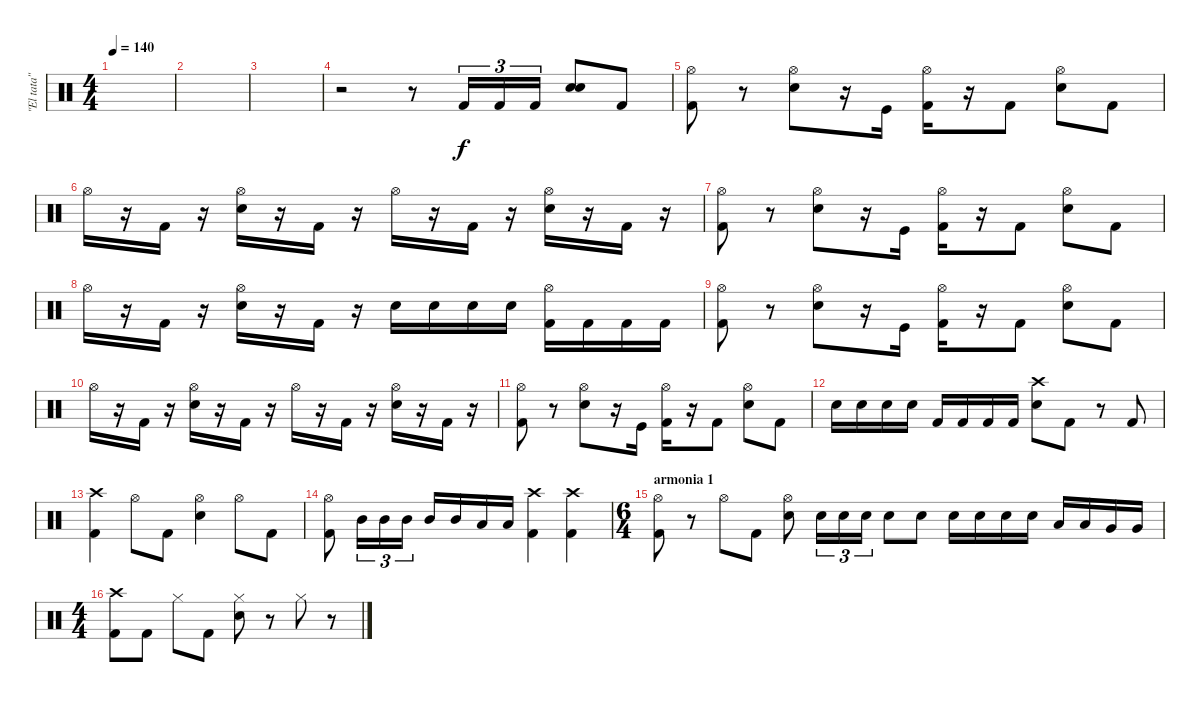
\track ("\"El tata\"" "\"El tata\"") {instrument percussion}
\staff {score}
\articulation defaults
\ts (4 4)
\tempo 140
\clef neutral
\ks c
|
|
|
r.2 r.8 "Kick (hit) 2".16{tu (3 2)} "Kick (hit) 2".16{tu (3 2)} "Kick (hit) 2".16{tu (3 2)} ("Electric Snare (hit)" "Electric Snare (hit)").8 "Kick (hit) 2".8 |
("Hi-Hat (open)" "Kick (hit) 2").8 r.8 ("Hi-Hat (open)" "Electric Snare (hit)").8 r.16 "Kick (hit)".16 ("Hi-Hat (open)" "Kick (hit) 2").16 r.16 "Kick (hit) 2".8 ("Hi-Hat (open)" "Electric Snare (hit)").8 "Kick (hit) 2".8 |
"Hi-Hat (open)".16 r.16 "Kick (hit) 2".16 r.16 ("Hi-Hat (open)" "Electric Snare (hit)").16 r.16 "Kick (hit) 2".16 r.16 "Hi-Hat (open)".16 r.16 "Kick (hit) 2".16 r.16 ("Hi-Hat (open)" "Electric Snare (hit)").16 r.16 "Kick (hit) 2".16 r.16 |
("Hi-Hat (open)" "Kick (hit) 2").8 r.8 ("Hi-Hat (open)" "Electric Snare (hit)").8 r.16 "Kick (hit)".16 ("Hi-Hat (open)" "Kick (hit) 2").16 r.16 "Kick (hit) 2".8 ("Hi-Hat (open)" "Electric Snare (hit)").8 "Kick (hit) 2".8 |
"Hi-Hat (open)".16 r.16 "Kick (hit) 2".16 r.16 ("Hi-Hat (open)" "Electric Snare (hit)").16 r.16 "Kick (hit) 2".16 r.16 "Electric Snare (hit)".16 "Electric Snare (hit)".16 "Electric Snare (hit)".16 "Electric Snare (hit)".16 ("Hi-Hat (open)" "Kick (hit) 2").16 "Kick (hit) 2".16 "Kick (hit) 2".16 "Kick (hit) 2".16 |
("Hi-Hat (open)" "Kick (hit) 2").8 r.8 ("Hi-Hat (open)" "Electric Snare (hit)").8 r.16 "Kick (hit)".16 ("Hi-Hat (open)" "Kick (hit) 2").16 r.16 "Kick (hit) 2".8 ("Hi-Hat (open)" "Electric Snare (hit)").8 "Kick (hit) 2".8 |
"Hi-Hat (open)".16 r.16 "Kick (hit) 2".16 r.16 ("Hi-Hat (open)" "Electric Snare (hit)").16 r.16 "Kick (hit) 2".16 r.16 "Hi-Hat (open)".16 r.16 "Kick (hit) 2".16 r.16 ("Hi-Hat (open)" "Electric Snare (hit)").16 r.16 "Kick (hit) 2".16 r.16 |
("Hi-Hat (open)" "Kick (hit) 2").8 r.8 ("Hi-Hat (open)" "Electric Snare (hit)").8 r.16 "Kick (hit)".16 ("Hi-Hat (open)" "Kick (hit) 2").16 r.16 "Kick (hit) 2".8 ("Hi-Hat (open)" "Electric Snare (hit)").8 "Kick (hit) 2".8 |
"Electric Snare (hit)".16 "Electric Snare (hit)".16 "Electric Snare (hit)".16 "Electric Snare (hit)".16 "Kick (hit) 2".16 "Kick (hit) 2".16 "Kick (hit) 2".16 "Kick (hit) 2".16 ("Crash high (hit)" "Electric Snare (hit)").8 "Kick (hit) 2".8 r.8 "Kick (hit) 2".8 |
("Crash high (hit)" "Kick (hit) 2").4 "Hi-Hat (open)".8 "Kick (hit) 2".8 ("Hi-Hat (open)" "Electric Snare (hit)").4 "Hi-Hat (open)".8 "Kick (hit) 2".8 |
("Hi-Hat (open)" "Kick (hit) 2").8 "Mid Tom (hit)".16{tu (3 2)} "Mid Tom (hit)".16{tu (3 2)} "Mid Tom (hit)".16{tu (3 2)} "Mid Tom (hit)".16 "Mid Tom (hit)".16 "Low Tom (hit)".16 "Low Tom (hit)".16 ("Crash high (hit)" "Kick (hit) 2").4 ("Crash high (hit)" "Kick (hit) 2").4 |
\ts (6 4)
\section ("" "armonia 1")
("Hi-Hat (open)" "Kick (hit) 2").8 r.8 "Hi-Hat (open)".8 "Kick (hit) 2".8 ("Hi-Hat (open)" "Electric Snare (hit)").8 "Electric Snare (hit)".16{tu (3 2)} "Electric Snare (hit)".16{tu (3 2)} "Electric Snare (hit)".16{tu (3 2)} "Electric Snare (hit)".8 "Electric Snare (hit)".8 "Electric Snare (hit)".16 "Electric Snare (hit)".16 "Electric Snare (hit)".16 "Electric Snare (hit)".16 "Low Tom (hit)".16 "Low Tom (hit)".16 "Very Low Tom (hit)".16 "Very Low Tom (hit)".16 |
\ts (4 4)
("Crash high (hit)" "Kick (hit) 2").8 "Kick (hit) 2".8 "Hi-Hat (closed)".8 "Kick (hit) 2".8 ("Hi-Hat (closed)" "Electric Snare (hit)").8 r.8 "Hi-Hat (closed)".8 r.8
